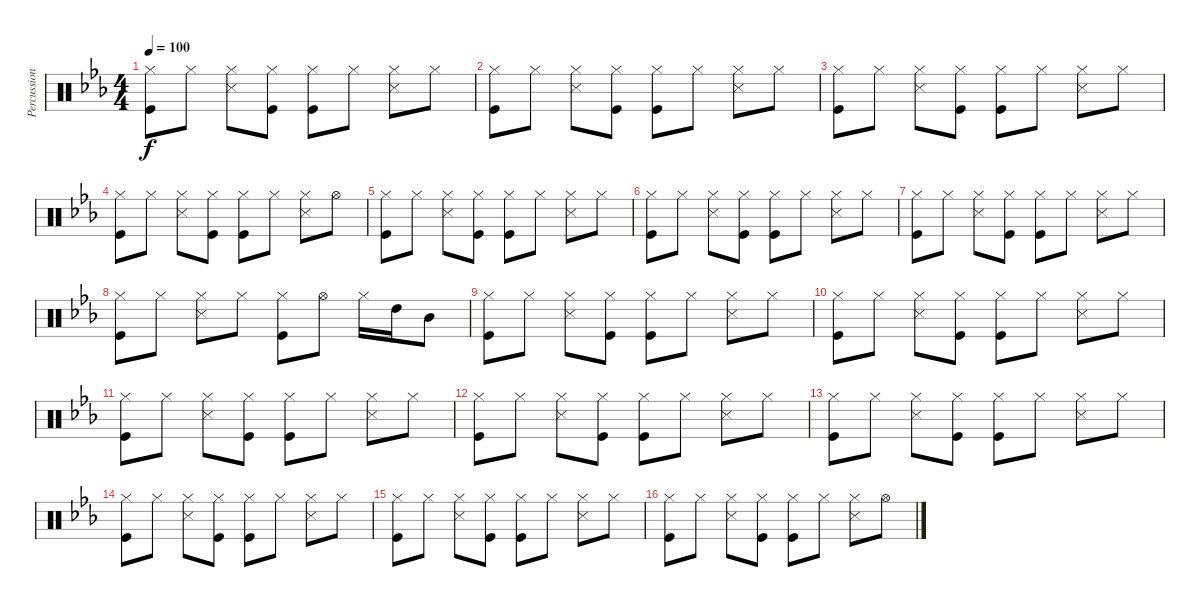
\track ("Percussion" "Percussion") {instrument percussion}
\staff {score}
\articulation defaults
\ts (4 4)
\tempo 100
\clef neutral
\ks eb
("Hi-Hat (closed)" "Kick (hit)").8{dy f} "Hi-Hat (closed)".8 ("Hi-Hat (closed)" "Snare (side stick) 3").8 ("Hi-Hat (closed)" "Kick (hit)").8 ("Hi-Hat (closed)" "Kick (hit)").8 "Hi-Hat (closed)".8 ("Hi-Hat (closed)" "Snare (side stick) 3").8 "Hi-Hat (closed)".8 |
("Hi-Hat (closed)" "Kick (hit)").8 "Hi-Hat (closed)".8 ("Hi-Hat (closed)" "Snare (side stick) 3").8 ("Hi-Hat (closed)" "Kick (hit)").8 ("Hi-Hat (closed)" "Kick (hit)").8 "Hi-Hat (closed)".8 ("Hi-Hat (closed)" "Snare (side stick) 3").8 "Hi-Hat (closed)".8 |
("Hi-Hat (closed)" "Kick (hit)").8 "Hi-Hat (closed)".8 ("Hi-Hat (closed)" "Snare (side stick) 3").8 ("Hi-Hat (closed)" "Kick (hit)").8 ("Hi-Hat (closed)" "Kick (hit)").8 "Hi-Hat (closed)".8 ("Hi-Hat (closed)" "Snare (side stick) 3").8 "Hi-Hat (closed)".8 |
("Hi-Hat (closed)" "Kick (hit)").8 "Hi-Hat (closed)".8 ("Hi-Hat (closed)" "Snare (side stick) 3").8 ("Hi-Hat (closed)" "Kick (hit)").8 ("Hi-Hat (closed)" "Kick (hit)").8 "Hi-Hat (closed)".8 ("Hi-Hat (closed)" "Snare (side stick) 3").8 "Hi-Hat (open)".8 |
("Hi-Hat (closed)" "Kick (hit)").8 "Hi-Hat (closed)".8 ("Hi-Hat (closed)" "Snare (side stick) 3").8 ("Hi-Hat (closed)" "Kick (hit)").8 ("Hi-Hat (closed)" "Kick (hit)").8 "Hi-Hat (closed)".8 ("Hi-Hat (closed)" "Snare (side stick) 3").8 "Hi-Hat (closed)".8 |
("Hi-Hat (closed)" "Kick (hit)").8 "Hi-Hat (closed)".8 ("Hi-Hat (closed)" "Snare (side stick) 3").8 ("Hi-Hat (closed)" "Kick (hit)").8 ("Hi-Hat (closed)" "Kick (hit)").8 "Hi-Hat (closed)".8 ("Hi-Hat (closed)" "Snare (side stick) 3").8 "Hi-Hat (closed)".8 |
("Hi-Hat (closed)" "Kick (hit)").8 "Hi-Hat (closed)".8 ("Hi-Hat (closed)" "Snare (side stick) 3").8 ("Hi-Hat (closed)" "Kick (hit)").8 ("Hi-Hat (closed)" "Kick (hit)").8 "Hi-Hat (closed)".8 ("Hi-Hat (closed)" "Snare (side stick) 3").8 "Hi-Hat (closed)".8 |
("Hi-Hat (closed)" "Kick (hit)").8 "Hi-Hat (closed)".8 ("Hi-Hat (closed)" "Snare (side stick) 3").8 "Hi-Hat (closed)".8 ("Hi-Hat (closed)" "Kick (hit)").8 "Hi-Hat (open)".8 "Hi-Hat (closed)".16 "High Tom (hit)".16 "Mid Tom (hit)".8 |
("Hi-Hat (closed)" "Kick (hit)").8 "Hi-Hat (closed)".8 ("Hi-Hat (closed)" "Snare (side stick) 3").8 ("Hi-Hat (closed)" "Kick (hit)").8 ("Hi-Hat (closed)" "Kick (hit)").8 "Hi-Hat (closed)".8 ("Hi-Hat (closed)" "Snare (side stick) 3").8 "Hi-Hat (closed)".8 |
("Hi-Hat (closed)" "Kick (hit)").8 "Hi-Hat (closed)".8 ("Hi-Hat (closed)" "Snare (side stick) 3").8 ("Hi-Hat (closed)" "Kick (hit)").8 ("Hi-Hat (closed)" "Kick (hit)").8 "Hi-Hat (closed)".8 ("Hi-Hat (closed)" "Snare (side stick) 3").8 "Hi-Hat (closed)".8 |
("Hi-Hat (closed)" "Kick (hit)").8 "Hi-Hat (closed)".8 ("Hi-Hat (closed)" "Snare (side stick) 3").8 ("Hi-Hat (closed)" "Kick (hit)").8 ("Hi-Hat (closed)" "Kick (hit)").8 "Hi-Hat (closed)".8 ("Hi-Hat (closed)" "Snare (side stick) 3").8 "Hi-Hat (closed)".8 |
("Hi-Hat (closed)" "Kick (hit)").8 "Hi-Hat (closed)".8 ("Hi-Hat (closed)" "Snare (side stick) 3").8 ("Hi-Hat (closed)" "Kick (hit)").8 ("Hi-Hat (closed)" "Kick (hit)").8 "Hi-Hat (closed)".8 ("Hi-Hat (closed)" "Snare (side stick) 3").8 "Hi-Hat (closed)".8 |
("Hi-Hat (closed)" "Kick (hit)").8 "Hi-Hat (closed)".8 ("Hi-Hat (closed)" "Snare (side stick) 3").8 ("Hi-Hat (closed)" "Kick (hit)").8 ("Hi-Hat (closed)" "Kick (hit)").8 "Hi-Hat (closed)".8 ("Hi-Hat (closed)" "Snare (side stick) 3").8 "Hi-Hat (closed)".8 |
("Hi-Hat (closed)" "Kick (hit)").8 "Hi-Hat (closed)".8 ("Hi-Hat (closed)" "Snare (side stick) 3").8 ("Hi-Hat (closed)" "Kick (hit)").8 ("Hi-Hat (closed)" "Kick (hit)").8 "Hi-Hat (closed)".8 ("Hi-Hat (closed)" "Snare (side stick) 3").8 "Hi-Hat (closed)".8 |
("Hi-Hat (closed)" "Kick (hit)").8 "Hi-Hat (closed)".8 ("Hi-Hat (closed)" "Snare (side stick) 3").8 ("Hi-Hat (closed)" "Kick (hit)").8 ("Hi-Hat (closed)" "Kick (hit)").8 "Hi-Hat (closed)".8 ("Hi-Hat (closed)" "Snare (side stick) 3").8 "Hi-Hat (closed)".8 |
("Hi-Hat (closed)" "Kick (hit)").8 "Hi-Hat (closed)".8 ("Hi-Hat (closed)" "Snare (side stick) 3").8 ("Hi-Hat (closed)" "Kick (hit)").8 ("Hi-Hat (closed)" "Kick (hit)").8 "Hi-Hat (closed)".8 ("Hi-Hat (closed)" "Snare (side stick) 3").8 "Hi-Hat (open)".8
